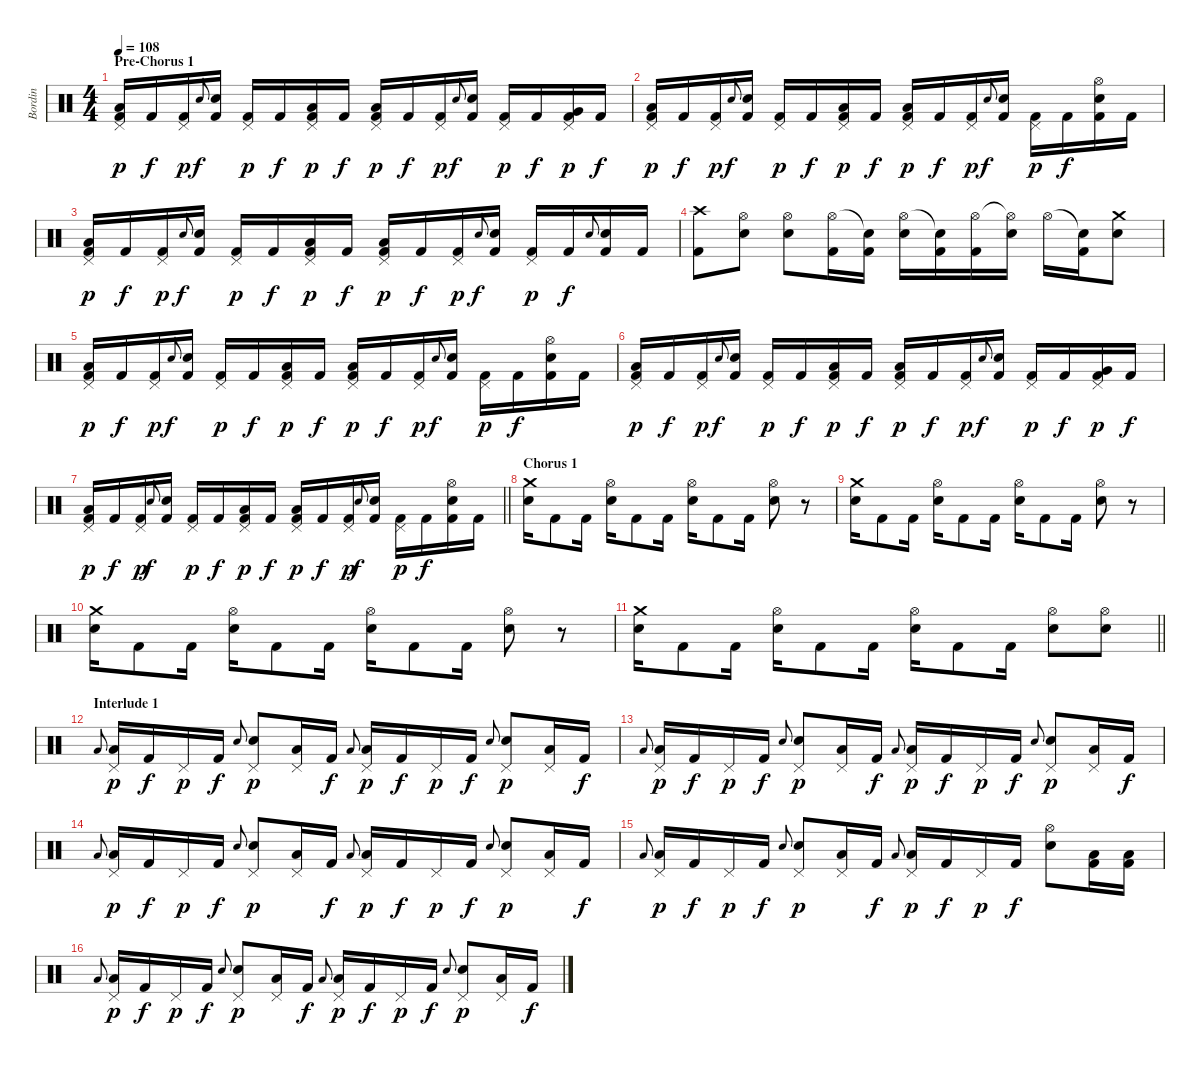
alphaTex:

\track ("Bordin" "Bordin") {instrument percussion}
\staff {score}
\articulation defaults
\ts (4 4)
\section ("" "Pre-Chorus 1")
\tempo 108
\clef neutral
\ks c
("Low Tom (hit)" "Pedal Hi-Hat (hit)" "Kick (hit) 2").16{dy p} "Kick (hit) 2".16{dy f} ("Pedal Hi-Hat (hit)" "Kick (hit) 2").16{dy p} "Electric Snare (hit)".8{gr onbeat dy f} ("Electric Snare (hit)" "Kick (hit) 2").16 ("Pedal Hi-Hat (hit)" "Kick (hit) 2").16{dy p} "Kick (hit) 2".16{dy f} ("Low Tom (hit)" "Pedal Hi-Hat (hit)" "Kick (hit) 2").16{dy p} "Kick (hit) 2".16{dy f} ("Low Tom (hit)" "Pedal Hi-Hat (hit)" "Kick (hit) 2").16{dy p} "Kick (hit) 2".16{dy f} ("Pedal Hi-Hat (hit)" "Kick (hit) 2").16{dy p} "Electric Snare (hit)".8{gr onbeat dy f} ("Electric Snare (hit)" "Kick (hit) 2").16 ("Pedal Hi-Hat (hit)" "Kick (hit) 2").16{dy p} "Kick (hit) 2".16{dy f} ("Very Low Tom (hit)" "Pedal Hi-Hat (hit)" "Kick (hit) 2").16{dy p} "Kick (hit) 2".16{dy f} |
("Low Tom (hit)" "Pedal Hi-Hat (hit)" "Kick (hit) 2").16{dy p} "Kick (hit) 2".16{dy f} ("Pedal Hi-Hat (hit)" "Kick (hit) 2").16{dy p} "Electric Snare (hit)".8{gr onbeat dy f} ("Electric Snare (hit)" "Kick (hit) 2").16 ("Pedal Hi-Hat (hit)" "Kick (hit) 2").16{dy p} "Kick (hit) 2".16{dy f} ("Low Tom (hit)" "Pedal Hi-Hat (hit)" "Kick (hit) 2").16{dy p} "Kick (hit) 2".16{dy f} ("Low Tom (hit)" "Pedal Hi-Hat (hit)" "Kick (hit) 2").16{dy p} "Kick (hit) 2".16{dy f} ("Pedal Hi-Hat (hit)" "Kick (hit) 2").16{dy p} "Electric Snare (hit)".8{gr onbeat dy f} ("Electric Snare (hit)" "Kick (hit) 2").16 ("Pedal Hi-Hat (hit)" "Kick (hit) 2").16{dy p} "Kick (hit) 2".16{dy f} ("Hi-Hat (open)" "Electric Snare (hit)" "Kick (hit) 2").16 "Kick (hit) 2".16 |
("Low Tom (hit)" "Pedal Hi-Hat (hit)" "Kick (hit) 2").16{dy p} "Kick (hit) 2".16{dy f} ("Pedal Hi-Hat (hit)" "Kick (hit) 2").16{dy p} "Electric Snare (hit)".8{gr onbeat dy f} ("Electric Snare (hit)" "Kick (hit) 2").16 ("Pedal Hi-Hat (hit)" "Kick (hit) 2").16{dy p} "Kick (hit) 2".16{dy f} ("Low Tom (hit)" "Pedal Hi-Hat (hit)" "Kick (hit) 2").16{dy p} "Kick (hit) 2".16{dy f} ("Low Tom (hit)" "Pedal Hi-Hat (hit)" "Kick (hit) 2").16{dy p} "Kick (hit) 2".16{dy f} ("Pedal Hi-Hat (hit)" "Kick (hit) 2").16{dy p} "Electric Snare (hit)".8{gr onbeat dy f} ("Electric Snare (hit)" "Kick (hit) 2").16 ("Pedal Hi-Hat (hit)" "Kick (hit) 2").16{dy p} "Kick (hit) 2".16{dy f} "Electric Snare (hit)".8{gr onbeat} ("Electric Snare (hit)" "Kick (hit) 2").16 "Kick (hit) 2".16 |
("Crash high (hit)" "Kick (hit) 2").8 ("Hi-Hat (open)" "Electric Snare (hit)").8 ("Hi-Hat (open)" "Electric Snare (hit)").8 ("Hi-Hat (open)" "Kick (hit) 2").16 ("Snare (hit)"{t} "Kick (hit) 2").16 ("Hi-Hat (open)" "Electric Snare (hit)").16 ("Snare (hit)"{t} "Kick (hit) 2").16 ("Hi-Hat (open)" "Kick (hit) 2").16 ("Hi-Hat (open)"{t} "Electric Snare (hit)").16 "Hi-Hat (open)".16 ("Snare (hit)"{t} "Kick (hit) 2").16 ("Crash medium (hit)" "Electric Snare (hit)").8 |
("Low Tom (hit)" "Pedal Hi-Hat (hit)" "Kick (hit) 2").16{dy p} "Kick (hit) 2".16{dy f} ("Pedal Hi-Hat (hit)" "Kick (hit) 2").16{dy p} "Electric Snare (hit)".8{gr onbeat dy f} ("Electric Snare (hit)" "Kick (hit) 2").16 ("Pedal Hi-Hat (hit)" "Kick (hit) 2").16{dy p} "Kick (hit) 2".16{dy f} ("Low Tom (hit)" "Pedal Hi-Hat (hit)" "Kick (hit) 2").16{dy p} "Kick (hit) 2".16{dy f} ("Low Tom (hit)" "Pedal Hi-Hat (hit)" "Kick (hit) 2").16{dy p} "Kick (hit) 2".16{dy f} ("Pedal Hi-Hat (hit)" "Kick (hit) 2").16{dy p} "Electric Snare (hit)".8{gr onbeat dy f} ("Electric Snare (hit)" "Kick (hit) 2").16 ("Pedal Hi-Hat (hit)" "Kick (hit) 2").16{dy p} "Kick (hit) 2".16{dy f} ("Hi-Hat (open)" "Electric Snare (hit)" "Kick (hit) 2").16 "Kick (hit) 2".16 |
("Low Tom (hit)" "Pedal Hi-Hat (hit)" "Kick (hit) 2").16{dy p} "Kick (hit) 2".16{dy f} ("Pedal Hi-Hat (hit)" "Kick (hit) 2").16{dy p} "Electric Snare (hit)".8{gr onbeat dy f} ("Electric Snare (hit)" "Kick (hit) 2").16 ("Pedal Hi-Hat (hit)" "Kick (hit) 2").16{dy p} "Kick (hit) 2".16{dy f} ("Low Tom (hit)" "Pedal Hi-Hat (hit)" "Kick (hit) 2").16{dy p} "Kick (hit) 2".16{dy f} ("Low Tom (hit)" "Pedal Hi-Hat (hit)" "Kick (hit) 2").16{dy p} "Kick (hit) 2".16{dy f} ("Pedal Hi-Hat (hit)" "Kick (hit) 2").16{dy p} "Electric Snare (hit)".8{gr onbeat dy f} ("Electric Snare (hit)" "Kick (hit) 2").16 ("Pedal Hi-Hat (hit)" "Kick (hit) 2").16{dy p} "Kick (hit) 2".16{dy f} ("Very Low Tom (hit)" "Pedal Hi-Hat (hit)" "Kick (hit) 2").16{dy p} "Kick (hit) 2".16{dy f} |
\barLineRight lightlight
("Low Tom (hit)" "Pedal Hi-Hat (hit)" "Kick (hit) 2").16{dy p} "Kick (hit) 2".16{dy f} ("Pedal Hi-Hat (hit)" "Kick (hit) 2").16{dy p} "Electric Snare (hit)".8{gr onbeat dy f} ("Electric Snare (hit)" "Kick (hit) 2").16 ("Pedal Hi-Hat (hit)" "Kick (hit) 2").16{dy p} "Kick (hit) 2".16{dy f} ("Low Tom (hit)" "Pedal Hi-Hat (hit)" "Kick (hit) 2").16{dy p} "Kick (hit) 2".16{dy f} ("Low Tom (hit)" "Pedal Hi-Hat (hit)" "Kick (hit) 2").16{dy p} "Kick (hit) 2".16{dy f} ("Pedal Hi-Hat (hit)" "Kick (hit) 2").16{dy p} "Electric Snare (hit)".8{gr onbeat dy f} ("Electric Snare (hit)" "Kick (hit) 2").16 ("Pedal Hi-Hat (hit)" "Kick (hit) 2").16{dy p} "Kick (hit) 2".16{dy f} ("Hi-Hat (open)" "Electric Snare (hit)" "Kick (hit) 2").16 "Kick (hit) 2".16 |
\section ("" "Chorus 1")
("Crash medium (hit)" "Electric Snare (hit)").16 "Kick (hit) 2".8 "Kick (hit) 2".16 ("Hi-Hat (open)" "Electric Snare (hit)").16 "Kick (hit) 2".8 "Kick (hit) 2".16 ("Hi-Hat (open)" "Electric Snare (hit)").16 "Kick (hit) 2".8 "Kick (hit) 2".16 ("Hi-Hat (open)" "Electric Snare (hit)").8 r.8 |
("Crash medium (hit)" "Electric Snare (hit)").16 "Kick (hit) 2".8 "Kick (hit) 2".16 ("Hi-Hat (open)" "Electric Snare (hit)").16 "Kick (hit) 2".8 "Kick (hit) 2".16 ("Hi-Hat (open)" "Electric Snare (hit)").16 "Kick (hit) 2".8 "Kick (hit) 2".16 ("Hi-Hat (open)" "Electric Snare (hit)").8 r.8 |
("Crash medium (hit)" "Electric Snare (hit)").16 "Kick (hit) 2".8 "Kick (hit) 2".16 ("Hi-Hat (open)" "Electric Snare (hit)").16 "Kick (hit) 2".8 "Kick (hit) 2".16 ("Hi-Hat (open)" "Electric Snare (hit)").16 "Kick (hit) 2".8 "Kick (hit) 2".16 ("Hi-Hat (open)" "Electric Snare (hit)").8 r.8 |
\barLineRight lightlight
("Crash medium (hit)" "Electric Snare (hit)").16 "Kick (hit) 2".8 "Kick (hit) 2".16 ("Hi-Hat (open)" "Electric Snare (hit)").16 "Kick (hit) 2".8 "Kick (hit) 2".16 ("Hi-Hat (open)" "Electric Snare (hit)").16 "Kick (hit) 2".8 "Kick (hit) 2".16 ("Hi-Hat (open)" "Electric Snare (hit)").8 ("Hi-Hat (open)" "Electric Snare (hit)").8 |
\section ("" "Interlude 1")
"Low Tom (hit)".8{gr onbeat} ("Low Tom (hit)" "Pedal Hi-Hat (hit)").16{dy p} "Kick (hit) 2".16{dy f} "Pedal Hi-Hat (hit)".16{dy p} "Kick (hit) 2".16{dy f} "Electric Snare (hit)".8{gr onbeat} ("Pedal Hi-Hat (hit)" "Electric Snare (hit)").8{dy p} ("Low Tom (hit)" "Pedal Hi-Hat (hit)").16 "Kick (hit) 2".16{dy f} "Low Tom (hit)".8{gr onbeat} ("Low Tom (hit)" "Pedal Hi-Hat (hit)").16{dy p} "Kick (hit) 2".16{dy f} "Pedal Hi-Hat (hit)".16{dy p} "Kick (hit) 2".16{dy f} "Electric Snare (hit)".8{gr onbeat} ("Pedal Hi-Hat (hit)" "Electric Snare (hit)").8{dy p} ("Low Tom (hit)" "Pedal Hi-Hat (hit)").16 "Kick (hit) 2".16{dy f} |
"Low Tom (hit)".8{gr onbeat} ("Low Tom (hit)" "Pedal Hi-Hat (hit)").16{dy p} "Kick (hit) 2".16{dy f} "Pedal Hi-Hat (hit)".16{dy p} "Kick (hit) 2".16{dy f} "Electric Snare (hit)".8{gr onbeat} ("Pedal Hi-Hat (hit)" "Electric Snare (hit)").8{dy p} ("Low Tom (hit)" "Pedal Hi-Hat (hit)").16 "Kick (hit) 2".16{dy f} "Low Tom (hit)".8{gr onbeat} ("Low Tom (hit)" "Pedal Hi-Hat (hit)").16{dy p} "Kick (hit) 2".16{dy f} "Pedal Hi-Hat (hit)".16{dy p} "Kick (hit) 2".16{dy f} "Electric Snare (hit)".8{gr onbeat} ("Pedal Hi-Hat (hit)" "Electric Snare (hit)").8{dy p} ("Low Tom (hit)" "Pedal Hi-Hat (hit)").16 "Kick (hit) 2".16{dy f} |
"Low Tom (hit)".8{gr onbeat} ("Low Tom (hit)" "Pedal Hi-Hat (hit)").16{dy p} "Kick (hit) 2".16{dy f} "Pedal Hi-Hat (hit)".16{dy p} "Kick (hit) 2".16{dy f} "Electric Snare (hit)".8{gr onbeat} ("Pedal Hi-Hat (hit)" "Electric Snare (hit)").8{dy p} ("Low Tom (hit)" "Pedal Hi-Hat (hit)").16 "Kick (hit) 2".16{dy f} "Low Tom (hit)".8{gr onbeat} ("Low Tom (hit)" "Pedal Hi-Hat (hit)").16{dy p} "Kick (hit) 2".16{dy f} "Pedal Hi-Hat (hit)".16{dy p} "Kick (hit) 2".16{dy f} "Electric Snare (hit)".8{gr onbeat} ("Pedal Hi-Hat (hit)" "Electric Snare (hit)").8{dy p} ("Low Tom (hit)" "Pedal Hi-Hat (hit)").16 "Kick (hit) 2".16{dy f} |
"Low Tom (hit)".8{gr onbeat} ("Low Tom (hit)" "Pedal Hi-Hat (hit)").16{dy p} "Kick (hit) 2".16{dy f} "Pedal Hi-Hat (hit)".16{dy p} "Kick (hit) 2".16{dy f} "Electric Snare (hit)".8{gr onbeat} ("Pedal Hi-Hat (hit)" "Electric Snare (hit)").8{dy p} ("Low Tom (hit)" "Pedal Hi-Hat (hit)").16 "Kick (hit) 2".16{dy f} "Low Tom (hit)".8{gr onbeat} ("Low Tom (hit)" "Pedal Hi-Hat (hit)").16{dy p} "Kick (hit) 2".16{dy f} "Pedal Hi-Hat (hit)".16{dy p} "Kick (hit) 2".16{dy f} ("Hi-Hat (open)" "Electric Snare (hit)").8 ("Low Tom (hit)" "Kick (hit) 2").16 ("Low Tom (hit)" "Kick (hit) 2").16 |
"Low Tom (hit)".8{gr onbeat} ("Low Tom (hit)" "Pedal Hi-Hat (hit)").16{dy p} "Kick (hit) 2".16{dy f} "Pedal Hi-Hat (hit)".16{dy p} "Kick (hit) 2".16{dy f} "Electric Snare (hit)".8{gr onbeat} ("Pedal Hi-Hat (hit)" "Electric Snare (hit)").8{dy p} ("Low Tom (hit)" "Pedal Hi-Hat (hit)").16 "Kick (hit) 2".16{dy f} "Low Tom (hit)".8{gr onbeat} ("Low Tom (hit)" "Pedal Hi-Hat (hit)").16{dy p} "Kick (hit) 2".16{dy f} "Pedal Hi-Hat (hit)".16{dy p} "Kick (hit) 2".16{dy f} "Electric Snare (hit)".8{gr onbeat} ("Pedal Hi-Hat (hit)" "Electric Snare (hit)").8{dy p} ("Low Tom (hit)" "Pedal Hi-Hat (hit)").16 "Kick (hit) 2".16{dy f}
